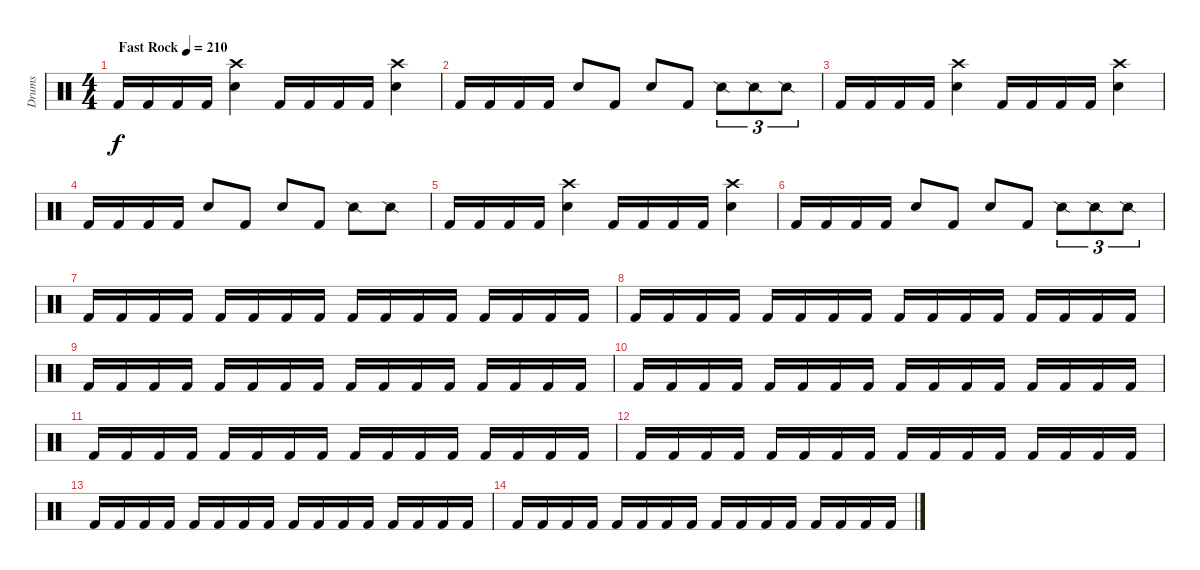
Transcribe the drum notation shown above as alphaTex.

\track ("Drums" "Drums") {instrument percussion}
\staff {score}
\articulation defaults
\ts (4 4)
\tempo (210 "Fast Rock")
\clef neutral
\ks c "Kick (hit) 2".16{dy f} "Kick (hit) 2".16 "Kick (hit) 2".16 "Kick (hit) 2".16
("Electric Snare (hit)" "Crash high (hit)").4 "Kick (hit) 2".16 "Kick (hit) 2".16 "Kick (hit) 2".16 "Kick (hit) 2".16 ("Electric Snare (hit)" "Crash high (hit)").4 |
"Kick (hit) 2".16 "Kick (hit) 2".16 "Kick (hit) 2".16 "Kick (hit) 2".16 "Electric Snare (hit)".8 "Kick (hit) 2".8 "Electric Snare (hit)".8 "Kick (hit) 2".8 "Snare (side stick) 2".8{tu (3 2)} "Snare (side stick) 2".8{tu (3 2)} "Snare (side stick) 2".8{tu (3 2)} |
"Kick (hit) 2".16 "Kick (hit) 2".16 "Kick (hit) 2".16 "Kick (hit) 2".16 ("Electric Snare (hit)" "Crash high (hit)").4 "Kick (hit) 2".16 "Kick (hit) 2".16 "Kick (hit) 2".16 "Kick (hit) 2".16 ("Electric Snare (hit)" "Crash high (hit)").4 |
"Kick (hit) 2".16 "Kick (hit) 2".16 "Kick (hit) 2".16 "Kick (hit) 2".16 "Electric Snare (hit)".8 "Kick (hit) 2".8 "Electric Snare (hit)".8 "Kick (hit) 2".8 "Snare (side stick) 2".8 "Snare (side stick) 2".8 |
"Kick (hit) 2".16 "Kick (hit) 2".16 "Kick (hit) 2".16 "Kick (hit) 2".16 ("Electric Snare (hit)" "Crash high (hit)").4 "Kick (hit) 2".16 "Kick (hit) 2".16 "Kick (hit) 2".16 "Kick (hit) 2".16 ("Electric Snare (hit)" "Crash high (hit)").4 |
"Kick (hit) 2".16 "Kick (hit) 2".16 "Kick (hit) 2".16 "Kick (hit) 2".16 "Electric Snare (hit)".8 "Kick (hit) 2".8 "Electric Snare (hit)".8 "Kick (hit) 2".8 "Snare (side stick) 2".8{tu (3 2)} "Snare (side stick) 2".8{tu (3 2)} "Snare (side stick) 2".8{tu (3 2)} |
"Kick (hit) 2".16 "Kick (hit) 2".16 "Kick (hit) 2".16 "Kick (hit) 2".16 "Kick (hit) 2".16 "Kick (hit) 2".16 "Kick (hit) 2".16 "Kick (hit) 2".16 "Kick (hit) 2".16 "Kick (hit) 2".16 "Kick (hit) 2".16 "Kick (hit) 2".16 "Kick (hit) 2".16 "Kick (hit) 2".16 "Kick (hit) 2".16 "Kick (hit) 2".16 |
"Kick (hit) 2".16 "Kick (hit) 2".16 "Kick (hit) 2".16 "Kick (hit) 2".16 "Kick (hit) 2".16 "Kick (hit) 2".16 "Kick (hit) 2".16 "Kick (hit) 2".16 "Kick (hit) 2".16 "Kick (hit) 2".16 "Kick (hit) 2".16 "Kick (hit) 2".16 "Kick (hit) 2".16 "Kick (hit) 2".16 "Kick (hit) 2".16 "Kick (hit) 2".16 |
"Kick (hit) 2".16 "Kick (hit) 2".16 "Kick (hit) 2".16 "Kick (hit) 2".16 "Kick (hit) 2".16 "Kick (hit) 2".16 "Kick (hit) 2".16 "Kick (hit) 2".16 "Kick (hit) 2".16 "Kick (hit) 2".16 "Kick (hit) 2".16 "Kick (hit) 2".16 "Kick (hit) 2".16 "Kick (hit) 2".16 "Kick (hit) 2".16 "Kick (hit) 2".16 |
"Kick (hit) 2".16 "Kick (hit) 2".16 "Kick (hit) 2".16 "Kick (hit) 2".16 "Kick (hit) 2".16 "Kick (hit) 2".16 "Kick (hit) 2".16 "Kick (hit) 2".16 "Kick (hit) 2".16 "Kick (hit) 2".16 "Kick (hit) 2".16 "Kick (hit) 2".16 "Kick (hit) 2".16 "Kick (hit) 2".16 "Kick (hit) 2".16 "Kick (hit) 2".16 |
"Kick (hit) 2".16 "Kick (hit) 2".16 "Kick (hit) 2".16 "Kick (hit) 2".16 "Kick (hit) 2".16 "Kick (hit) 2".16 "Kick (hit) 2".16 "Kick (hit) 2".16 "Kick (hit) 2".16 "Kick (hit) 2".16 "Kick (hit) 2".16 "Kick (hit) 2".16 "Kick (hit) 2".16 "Kick (hit) 2".16 "Kick (hit) 2".16 "Kick (hit) 2".16 |
"Kick (hit) 2".16 "Kick (hit) 2".16 "Kick (hit) 2".16 "Kick (hit) 2".16 "Kick (hit) 2".16 "Kick (hit) 2".16 "Kick (hit) 2".16 "Kick (hit) 2".16 "Kick (hit) 2".16 "Kick (hit) 2".16 "Kick (hit) 2".16 "Kick (hit) 2".16 "Kick (hit) 2".16 "Kick (hit) 2".16 "Kick (hit) 2".16 "Kick (hit) 2".16 |
"Kick (hit) 2".16 "Kick (hit) 2".16 "Kick (hit) 2".16 "Kick (hit) 2".16 "Kick (hit) 2".16 "Kick (hit) 2".16 "Kick (hit) 2".16 "Kick (hit) 2".16 "Kick (hit) 2".16 "Kick (hit) 2".16 "Kick (hit) 2".16 "Kick (hit) 2".16 "Kick (hit) 2".16 "Kick (hit) 2".16 "Kick (hit) 2".16 "Kick (hit) 2".16 |
"Kick (hit) 2".16 "Kick (hit) 2".16 "Kick (hit) 2".16 "Kick (hit) 2".16 "Kick (hit) 2".16 "Kick (hit) 2".16 "Kick (hit) 2".16 "Kick (hit) 2".16 "Kick (hit) 2".16 "Kick (hit) 2".16 "Kick (hit) 2".16 "Kick (hit) 2".16 "Kick (hit) 2".16 "Kick (hit) 2".16 "Kick (hit) 2".16 "Kick (hit) 2".16
